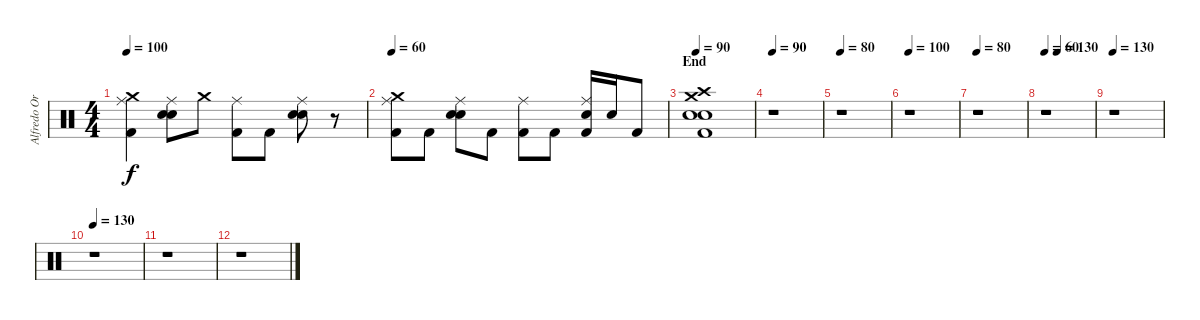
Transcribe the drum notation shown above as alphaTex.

\track ("Alfredo Ortiz (Drums)" "Alfredo Or") {instrument percussion}
\staff {score}
\articulation defaults
\ts (4 4)
\tempo 100
\clef neutral
\ks c
("Kick (hit) 2" "Ride (middle)" "Crash medium (hit)").4{dy f} ("Snare (hit) 2" "Electric Snare (hit)" "Ride (middle)").8 "Crash medium (hit)".8 ("Kick (hit) 2" "Ride (middle)").8 "Kick (hit) 2".8 ("Snare (hit) 2" "Electric Snare (hit)" "Ride (middle)").8 r.8 |
\tempo 60
("Kick (hit) 2" "Ride (middle)" "Crash medium (hit)").8 "Kick (hit) 2".8 ("Snare (hit) 2" "Electric Snare (hit)" "Ride (middle)").8 "Kick (hit) 2".8 ("Kick (hit) 2" "Ride (middle)").8 "Kick (hit) 2".8 ("Kick (hit) 2" "Electric Snare (hit)" "Ride (middle)").16 "Snare (hit) 2".16 "Kick (hit) 2".8 |
\section ("" "End")
\tempo 90
("Crash medium (hit)" "Kick (hit) 2" "Electric Snare (hit)" "Snare (hit) 2" "Crash high (hit)").1 |
\tempo 90
r.1 |
\tempo 80
r.1 |
\tempo 100
r.1 |
\tempo 80
r.1 |
\tempo 60
\tempo (130 0.25)
r.1 |
\tempo 130
r.1 |
\tempo 130
r.1 |
r.1 |
r.1
